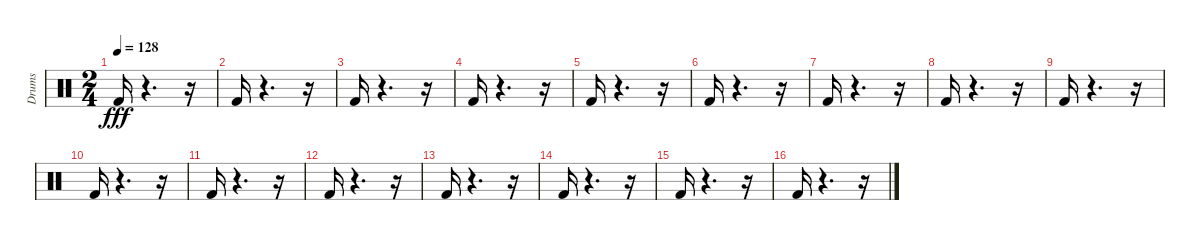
\track ("Drums" "Drums") {instrument percussion}
\staff {score}
\articulation defaults
\ts (2 4)
\tempo 128
\clef neutral
\ks c "Kick (hit) 2".16{dy fff}
r.4{d} r.16 |
"Kick (hit) 2".16 r.4{d} r.16 |
"Kick (hit) 2".16 r.4{d} r.16 |
"Kick (hit) 2".16 r.4{d} r.16 |
"Kick (hit) 2".16 r.4{d} r.16 |
"Kick (hit) 2".16 r.4{d} r.16 |
"Kick (hit) 2".16 r.4{d} r.16 |
"Kick (hit) 2".16 r.4{d} r.16 |
"Kick (hit) 2".16 r.4{d} r.16 |
"Kick (hit) 2".16 r.4{d} r.16 |
"Kick (hit) 2".16 r.4{d} r.16 |
"Kick (hit) 2".16 r.4{d} r.16 |
"Kick (hit) 2".16 r.4{d} r.16 |
"Kick (hit) 2".16 r.4{d} r.16 |
"Kick (hit) 2".16 r.4{d} r.16 |
"Kick (hit) 2".16 r.4{d} r.16
